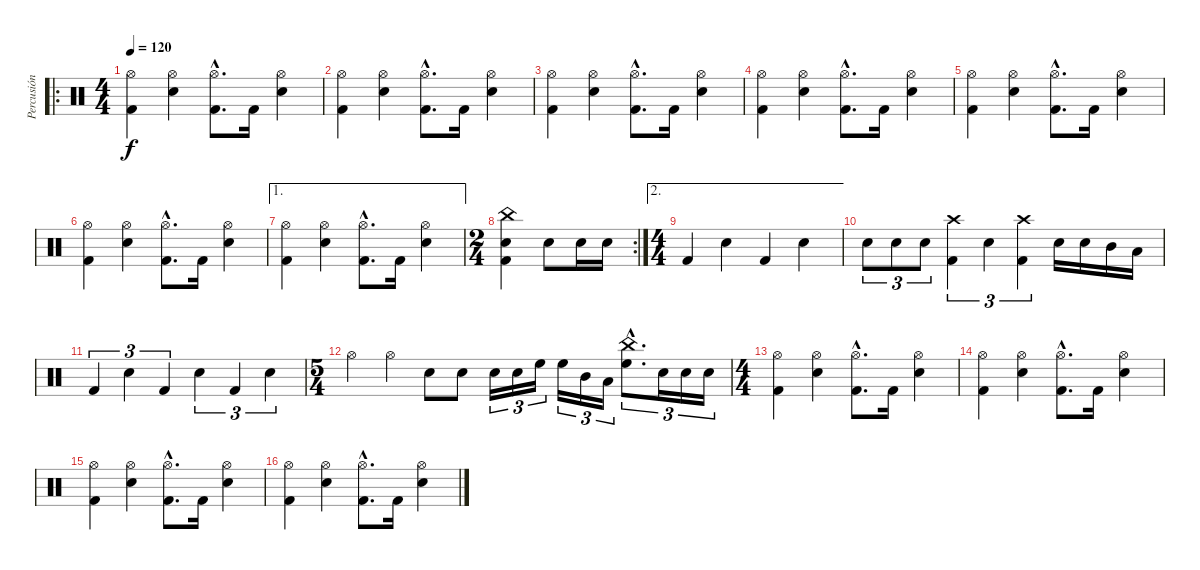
\track ("Percusión" "Percusión") {instrument percussion}
\staff {score}
\articulation defaults
\ro
\ts (4 4)
\tempo 120
\clef neutral
\ks c
("Hi-Hat (open)" "Kick (hit) 2").4{dy f} ("Hi-Hat (open)" "Electric Snare (hit)").4 ("Hi-Hat (open)"{hac} "Kick (hit) 2"{hac}).8{d} "Kick (hit) 2".16 ("Hi-Hat (open)" "Electric Snare (hit)").4 |
("Hi-Hat (open)" "Kick (hit) 2").4 ("Hi-Hat (open)" "Electric Snare (hit)").4 ("Hi-Hat (open)"{hac} "Kick (hit) 2"{hac}).8{d} "Kick (hit) 2".16 ("Hi-Hat (open)" "Electric Snare (hit)").4 |
("Hi-Hat (open)" "Kick (hit) 2").4 ("Hi-Hat (open)" "Electric Snare (hit)").4 ("Hi-Hat (open)"{hac} "Kick (hit) 2"{hac}).8{d} "Kick (hit) 2".16 ("Hi-Hat (open)" "Electric Snare (hit)").4 |
("Hi-Hat (open)" "Kick (hit) 2").4 ("Hi-Hat (open)" "Electric Snare (hit)").4 ("Hi-Hat (open)"{hac} "Kick (hit) 2"{hac}).8{d} "Kick (hit) 2".16 ("Hi-Hat (open)" "Electric Snare (hit)").4 |
("Hi-Hat (open)" "Kick (hit) 2").4 ("Hi-Hat (open)" "Electric Snare (hit)").4 ("Hi-Hat (open)"{hac} "Kick (hit) 2"{hac}).8{d} "Kick (hit) 2".16 ("Hi-Hat (open)" "Electric Snare (hit)").4 |
("Hi-Hat (open)" "Kick (hit) 2").4 ("Hi-Hat (open)" "Electric Snare (hit)").4 ("Hi-Hat (open)"{hac} "Kick (hit) 2"{hac}).8{d} "Kick (hit) 2".16 ("Hi-Hat (open)" "Electric Snare (hit)").4 |
\ae 1
("Hi-Hat (open)" "Kick (hit) 2").4 ("Hi-Hat (open)" "Electric Snare (hit)").4 ("Hi-Hat (open)"{hac} "Kick (hit) 2"{hac}).8{d} "Kick (hit) 2".16 ("Hi-Hat (open)" "Electric Snare (hit)").4 |
\rc 2
\ts (2 4)
("China (hit)" "Electric Snare (hit)" "Kick (hit) 2").4 "Electric Snare (hit)".8 "Electric Snare (hit)".16 "Electric Snare (hit)".16 |
\ae 2
\ts (4 4)
"Kick (hit) 2".4 "Electric Snare (hit)".4 "Kick (hit) 2".4 "Electric Snare (hit)".4 |
"Electric Snare (hit)".8{tu (3 2)} "Electric Snare (hit)".8{tu (3 2)} "Electric Snare (hit)".8{tu (3 2)} ("Crash high (hit)" "Kick (hit) 2").4{tu (3 2)} "Electric Snare (hit)".4{tu (3 2)} ("Crash high (hit)" "Kick (hit) 2").4{tu (3 2)} "Electric Snare (hit)".16 "Electric Snare (hit)".16 "Mid Tom (hit)".16 "Low Tom (hit)".16 |
"Kick (hit) 2".4{tu (3 2)} "Electric Snare (hit)".4{tu (3 2)} "Kick (hit) 2".4{tu (3 2)} "Electric Snare (hit)".4{tu (3 2)} "Kick (hit) 2".4{tu (3 2)} "Electric Snare (hit)".4{tu (3 2)} |
\ts (5 4)
"Hi-Hat (open)".4 "Hi-Hat (open)".4 "Electric Snare (hit)".8 "Electric Snare (hit)".8 "Electric Snare (hit)".16{tu (3 2)} "Electric Snare (hit)".16{tu (3 2)} "High Floor Tom (hit)".16{tu (3 2)} "High Floor Tom (hit)".16{tu (3 2)} "Mid Tom (hit)".16{tu (3 2)} "Low Tom (hit)".16{tu (3 2)} ("China (hit)"{hac} "High Floor Tom (hit)"{hac}).8{d tu (3 2)} "Electric Snare (hit)".16{tu (3 2)} "Electric Snare (hit)".16{tu (3 2)} "Electric Snare (hit)".16{tu (3 2)} |
\ts (4 4)
("Hi-Hat (open)" "Kick (hit) 2").4 ("Hi-Hat (open)" "Electric Snare (hit)").4 ("Hi-Hat (open)"{hac} "Kick (hit) 2"{hac}).8{d} "Kick (hit) 2".16 ("Hi-Hat (open)" "Electric Snare (hit)").4 |
("Hi-Hat (open)" "Kick (hit) 2").4 ("Hi-Hat (open)" "Electric Snare (hit)").4 ("Hi-Hat (open)"{hac} "Kick (hit) 2"{hac}).8{d} "Kick (hit) 2".16 ("Hi-Hat (open)" "Electric Snare (hit)").4 |
("Hi-Hat (open)" "Kick (hit) 2").4 ("Hi-Hat (open)" "Electric Snare (hit)").4 ("Hi-Hat (open)"{hac} "Kick (hit) 2"{hac}).8{d} "Kick (hit) 2".16 ("Hi-Hat (open)" "Electric Snare (hit)").4 |
("Hi-Hat (open)" "Kick (hit) 2").4 ("Hi-Hat (open)" "Electric Snare (hit)").4 ("Hi-Hat (open)"{hac} "Kick (hit) 2"{hac}).8{d} "Kick (hit) 2".16 ("Hi-Hat (open)" "Electric Snare (hit)").4
